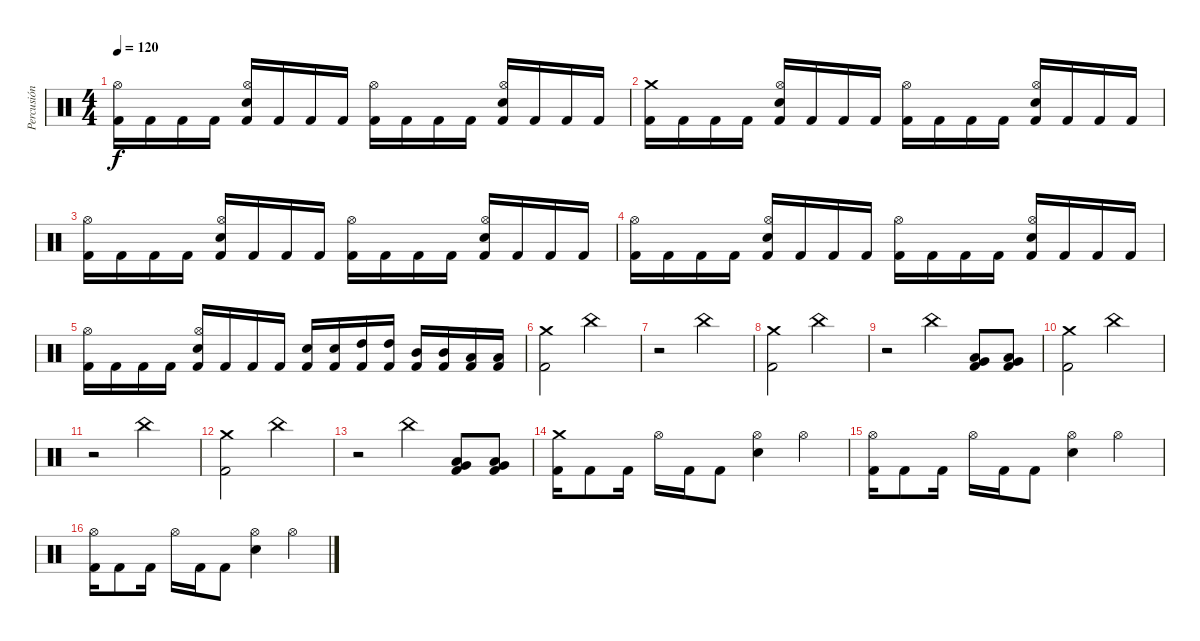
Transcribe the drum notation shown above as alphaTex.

\track ("Percusión" "Percusión") {instrument percussion}
\staff {score}
\articulation defaults
\ts (4 4)
\tempo 120
\clef neutral
\ks c
("Kick (hit) 2" "Hi-Hat (open)").16{dy f} "Kick (hit) 2".16 "Kick (hit) 2".16 "Kick (hit) 2".16 ("Kick (hit) 2" "Electric Snare (hit)" "Hi-Hat (open)").16 "Kick (hit) 2".16 "Kick (hit) 2".16 "Kick (hit) 2".16 ("Kick (hit) 2" "Hi-Hat (open)").16 "Kick (hit) 2".16 "Kick (hit) 2".16 "Kick (hit) 2".16 ("Kick (hit) 2" "Electric Snare (hit)" "Hi-Hat (open)").16 "Kick (hit) 2".16 "Kick (hit) 2".16 "Kick (hit) 2".16 |
("Kick (hit) 2" "Crash medium (hit)").16 "Kick (hit) 2".16 "Kick (hit) 2".16 "Kick (hit) 2".16 ("Kick (hit) 2" "Electric Snare (hit)" "Hi-Hat (open)").16 "Kick (hit) 2".16 "Kick (hit) 2".16 "Kick (hit) 2".16 ("Kick (hit) 2" "Hi-Hat (open)").16 "Kick (hit) 2".16 "Kick (hit) 2".16 "Kick (hit) 2".16 ("Kick (hit) 2" "Electric Snare (hit)" "Hi-Hat (open)").16 "Kick (hit) 2".16 "Kick (hit) 2".16 "Kick (hit) 2".16 |
("Kick (hit) 2" "Hi-Hat (open)").16 "Kick (hit) 2".16 "Kick (hit) 2".16 "Kick (hit) 2".16 ("Kick (hit) 2" "Electric Snare (hit)" "Hi-Hat (open)").16 "Kick (hit) 2".16 "Kick (hit) 2".16 "Kick (hit) 2".16 ("Kick (hit) 2" "Hi-Hat (open)").16 "Kick (hit) 2".16 "Kick (hit) 2".16 "Kick (hit) 2".16 ("Kick (hit) 2" "Electric Snare (hit)" "Hi-Hat (open)").16 "Kick (hit) 2".16 "Kick (hit) 2".16 "Kick (hit) 2".16 |
("Kick (hit) 2" "Hi-Hat (open)").16 "Kick (hit) 2".16 "Kick (hit) 2".16 "Kick (hit) 2".16 ("Kick (hit) 2" "Electric Snare (hit)" "Hi-Hat (open)").16 "Kick (hit) 2".16 "Kick (hit) 2".16 "Kick (hit) 2".16 ("Kick (hit) 2" "Hi-Hat (open)").16 "Kick (hit) 2".16 "Kick (hit) 2".16 "Kick (hit) 2".16 ("Kick (hit) 2" "Electric Snare (hit)" "Hi-Hat (open)").16 "Kick (hit) 2".16 "Kick (hit) 2".16 "Kick (hit) 2".16 |
("Kick (hit) 2" "Hi-Hat (open)").16 "Kick (hit) 2".16 "Kick (hit) 2".16 "Kick (hit) 2".16 ("Kick (hit) 2" "Electric Snare (hit)" "Hi-Hat (open)").16 "Kick (hit) 2".16 "Kick (hit) 2".16 "Kick (hit) 2".16 ("Kick (hit) 2" "Electric Snare (hit)").16 ("Kick (hit) 2" "Electric Snare (hit)").16 ("Kick (hit) 2" "High Tom (hit)").16 ("Kick (hit) 2" "High Tom (hit)").16 ("Kick (hit) 2" "Mid Tom (hit)").16 ("Kick (hit) 2" "Mid Tom (hit)").16 ("Kick (hit) 2" "Low Tom (hit)").16 ("Kick (hit) 2" "Low Tom (hit)").16 |
("Kick (hit) 2" "Crash medium (hit)").2 "China (hit)".2 |
r.2 "China (hit)".2 |
("Kick (hit) 2" "Crash medium (hit)").2 "China (hit)".2 |
r.2 "China (hit)".4 ("Kick (hit) 2" "Low Floor Tom (hit)" "Very Low Tom (hit)").8 ("Kick (hit) 2" "Low Floor Tom (hit)" "Very Low Tom (hit)").8 |
("Kick (hit) 2" "Crash medium (hit)").2 "China (hit)".2 |
r.2 "China (hit)".2 |
("Kick (hit) 2" "Crash medium (hit)").2 "China (hit)".2 |
r.2 "China (hit)".4 ("Kick (hit) 2" "Low Floor Tom (hit)" "Very Low Tom (hit)").8 ("Kick (hit) 2" "Low Floor Tom (hit)" "Very Low Tom (hit)").8 |
("Kick (hit) 2" "Crash medium (hit)").16 "Kick (hit) 2".8 "Kick (hit) 2".16 "Hi-Hat (open)".16 "Kick (hit) 2".16 "Kick (hit) 2".8 ("Electric Snare (hit)" "Hi-Hat (open)").4 "Hi-Hat (open)".4 |
("Kick (hit) 2" "Hi-Hat (open)").16 "Kick (hit) 2".8 "Kick (hit) 2".16 "Hi-Hat (open)".16 "Kick (hit) 2".16 "Kick (hit) 2".8 ("Electric Snare (hit)" "Hi-Hat (open)").4 "Hi-Hat (open)".4 |
("Kick (hit) 2" "Hi-Hat (open)").16 "Kick (hit) 2".8 "Kick (hit) 2".16 "Hi-Hat (open)".16 "Kick (hit) 2".16 "Kick (hit) 2".8 ("Electric Snare (hit)" "Hi-Hat (open)").4 "Hi-Hat (open)".4
